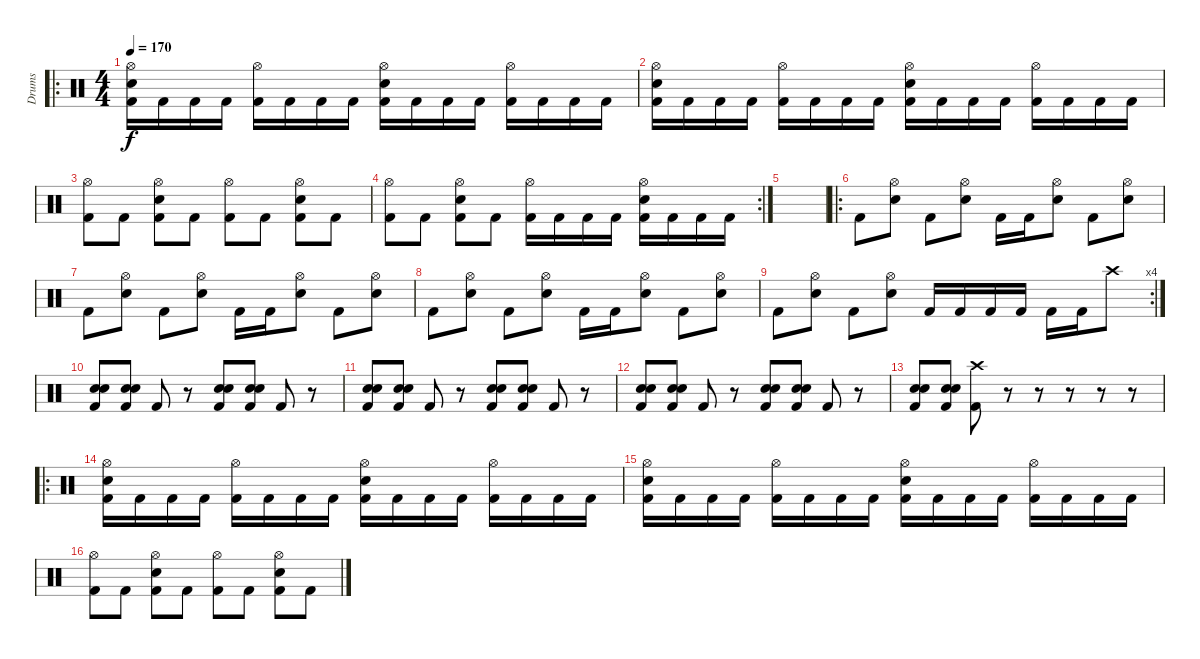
\track ("Drums" "Drums") {instrument percussion}
\staff {score}
\articulation defaults
\ro
\ts (4 4)
\tempo 170
\clef neutral
\ks c
("Hi-Hat (open)" "Snare (hit) 2" "Kick (hit) 2").16{dy f} "Kick (hit) 2".16 "Kick (hit) 2".16 "Kick (hit) 2".16 ("Hi-Hat (open)" "Kick (hit) 2").16 "Kick (hit) 2".16 "Kick (hit) 2".16 "Kick (hit) 2".16 ("Hi-Hat (open)" "Snare (hit) 2" "Kick (hit) 2").16 "Kick (hit) 2".16 "Kick (hit) 2".16 "Kick (hit) 2".16 ("Hi-Hat (open)" "Kick (hit) 2").16 "Kick (hit) 2".16 "Kick (hit) 2".16 "Kick (hit) 2".16 |
("Hi-Hat (open)" "Snare (hit) 2" "Kick (hit) 2").16 "Kick (hit) 2".16 "Kick (hit) 2".16 "Kick (hit) 2".16 ("Hi-Hat (open)" "Kick (hit) 2").16 "Kick (hit) 2".16 "Kick (hit) 2".16 "Kick (hit) 2".16 ("Hi-Hat (open)" "Snare (hit) 2" "Kick (hit) 2").16 "Kick (hit) 2".16 "Kick (hit) 2".16 "Kick (hit) 2".16 ("Hi-Hat (open)" "Kick (hit) 2").16 "Kick (hit) 2".16 "Kick (hit) 2".16 "Kick (hit) 2".16 |
("Hi-Hat (open)" "Kick (hit) 2").8 "Kick (hit) 2".8 ("Hi-Hat (open)" "Snare (hit) 2" "Kick (hit) 2").8 "Kick (hit) 2".8 ("Hi-Hat (open)" "Kick (hit) 2").8 "Kick (hit) 2".8 ("Hi-Hat (open)" "Snare (hit) 2" "Kick (hit) 2").8 "Kick (hit) 2".8 |
\rc 2
("Hi-Hat (open)" "Kick (hit) 2").8 "Kick (hit) 2".8 ("Hi-Hat (open)" "Snare (hit) 2" "Kick (hit) 2").8 "Kick (hit) 2".8 ("Hi-Hat (open)" "Kick (hit) 2").16 "Kick (hit) 2".16 "Kick (hit) 2".16 "Kick (hit) 2".16 ("Hi-Hat (open)" "Snare (hit) 2" "Kick (hit) 2").16 "Kick (hit) 2".16 "Kick (hit) 2".16 "Kick (hit) 2".16 |
|
\ro "Kick (hit) 2".8
("Hi-Hat (open)" "Snare (hit) 2").8 "Kick (hit) 2".8 ("Hi-Hat (open)" "Snare (hit) 2").8 "Kick (hit) 2".16 "Kick (hit) 2".16 ("Hi-Hat (open)" "Snare (hit) 2").8 "Kick (hit) 2".8 ("Hi-Hat (open)" "Snare (hit) 2").8 |
"Kick (hit) 2".8 ("Hi-Hat (open)" "Snare (hit) 2").8 "Kick (hit) 2".8 ("Hi-Hat (open)" "Snare (hit) 2").8 "Kick (hit) 2".16 "Kick (hit) 2".16 ("Hi-Hat (open)" "Snare (hit) 2").8 "Kick (hit) 2".8 ("Hi-Hat (open)" "Snare (hit) 2").8 |
"Kick (hit) 2".8 ("Hi-Hat (open)" "Snare (hit) 2").8 "Kick (hit) 2".8 ("Hi-Hat (open)" "Snare (hit) 2").8 "Kick (hit) 2".16 "Kick (hit) 2".16 ("Hi-Hat (open)" "Snare (hit) 2").8 "Kick (hit) 2".8 ("Hi-Hat (open)" "Snare (hit) 2").8 |
\rc 4 "Kick (hit) 2".8
("Hi-Hat (open)" "Snare (hit) 2").8 "Kick (hit) 2".8 ("Hi-Hat (open)" "Snare (hit) 2").8 "Kick (hit) 2".16 "Kick (hit) 2".16 "Kick (hit) 2".16 "Kick (hit) 2".16 "Kick (hit) 2".16 "Kick (hit) 2".16 "Crash high (hit)".8 |
("Snare (hit) 2" "Snare (hit) 2" "Kick (hit) 2").8 ("Snare (hit) 2" "Snare (hit) 2" "Kick (hit) 2").8 "Kick (hit) 2".8 r.8 ("Snare (hit) 2" "Snare (hit) 2" "Kick (hit) 2").8 ("Snare (hit) 2" "Snare (hit) 2" "Kick (hit) 2").8 "Kick (hit) 2".8 r.8 |
("Snare (hit) 2" "Snare (hit) 2" "Kick (hit) 2").8 ("Snare (hit) 2" "Snare (hit) 2" "Kick (hit) 2").8 "Kick (hit) 2".8 r.8 ("Snare (hit) 2" "Snare (hit) 2" "Kick (hit) 2").8 ("Snare (hit) 2" "Snare (hit) 2" "Kick (hit) 2").8 "Kick (hit) 2".8 r.8 |
("Snare (hit) 2" "Snare (hit) 2" "Kick (hit) 2").8 ("Snare (hit) 2" "Snare (hit) 2" "Kick (hit) 2").8 "Kick (hit) 2".8 r.8 ("Snare (hit) 2" "Snare (hit) 2" "Kick (hit) 2").8 ("Snare (hit) 2" "Snare (hit) 2" "Kick (hit) 2").8 "Kick (hit) 2".8 r.8 |
("Snare (hit) 2" "Snare (hit) 2" "Kick (hit) 2").8 ("Snare (hit) 2" "Snare (hit) 2" "Kick (hit) 2").8 ("Crash high (hit)" "Kick (hit) 2").8 r.8 r.8 r.8 r.8 r.8 |
\ro
("Hi-Hat (open)" "Snare (hit) 2" "Kick (hit) 2").16 "Kick (hit) 2".16 "Kick (hit) 2".16 "Kick (hit) 2".16 ("Hi-Hat (open)" "Kick (hit) 2").16 "Kick (hit) 2".16 "Kick (hit) 2".16 "Kick (hit) 2".16 ("Hi-Hat (open)" "Snare (hit) 2" "Kick (hit) 2").16 "Kick (hit) 2".16 "Kick (hit) 2".16 "Kick (hit) 2".16 ("Hi-Hat (open)" "Kick (hit) 2").16 "Kick (hit) 2".16 "Kick (hit) 2".16 "Kick (hit) 2".16 |
("Hi-Hat (open)" "Snare (hit) 2" "Kick (hit) 2").16 "Kick (hit) 2".16 "Kick (hit) 2".16 "Kick (hit) 2".16 ("Hi-Hat (open)" "Kick (hit) 2").16 "Kick (hit) 2".16 "Kick (hit) 2".16 "Kick (hit) 2".16 ("Hi-Hat (open)" "Snare (hit) 2" "Kick (hit) 2").16 "Kick (hit) 2".16 "Kick (hit) 2".16 "Kick (hit) 2".16 ("Hi-Hat (open)" "Kick (hit) 2").16 "Kick (hit) 2".16 "Kick (hit) 2".16 "Kick (hit) 2".16 |
("Hi-Hat (open)" "Kick (hit) 2").8 "Kick (hit) 2".8 ("Hi-Hat (open)" "Snare (hit) 2" "Kick (hit) 2").8 "Kick (hit) 2".8 ("Hi-Hat (open)" "Kick (hit) 2").8 "Kick (hit) 2".8 ("Hi-Hat (open)" "Snare (hit) 2" "Kick (hit) 2").8 "Kick (hit) 2".8
